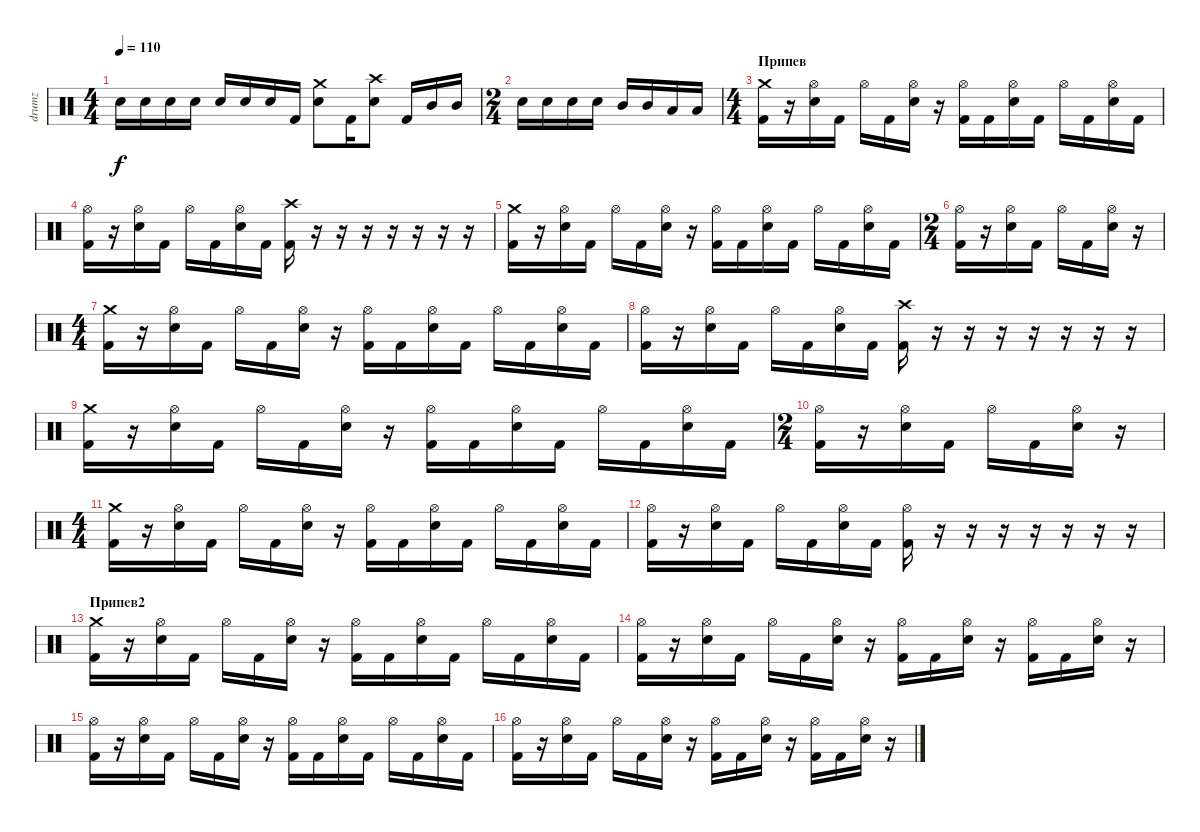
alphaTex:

\track ("drumz" "drumz") {instrument percussion}
\staff {score}
\articulation defaults
\ts (4 4)
\tempo 110
\clef neutral
\ks c "Electric Snare (hit)".16{dy f} "Electric Snare (hit)".16 "Electric Snare (hit)".16 "Electric Snare (hit)".16 "Electric Snare (hit)".16 "Electric Snare (hit)".16 "Electric Snare (hit)".16 "Kick (hit) 2".16
("Crash medium (hit)" "Electric Snare (hit)").8 "Kick (hit) 2".16 ("Crash high (hit)" "Electric Snare (hit)").8 "Kick (hit) 2".16 "Mid Tom (hit)".16 "Mid Tom (hit)".16 |
\ts (2 4)
"Electric Snare (hit)".16 "Electric Snare (hit)".16 "Electric Snare (hit)".16 "Electric Snare (hit)".16 "Mid Tom (hit)".16 "Mid Tom (hit)".16 "Low Tom (hit)".16 "Low Tom (hit)".16 |
\ts (4 4)
\section ("" "Припев")
("Crash medium (hit)" "Kick (hit) 2").16 r.16 ("Hi-Hat (open)" "Electric Snare (hit)").16 "Kick (hit) 2".16 "Hi-Hat (open)".16 "Kick (hit) 2".16 ("Hi-Hat (open)" "Electric Snare (hit)").16 r.16 ("Hi-Hat (open)" "Kick (hit) 2").16 "Kick (hit) 2".16 ("Hi-Hat (open)" "Electric Snare (hit)").16 "Kick (hit) 2".16 "Hi-Hat (open)".16 "Kick (hit) 2".16 ("Hi-Hat (open)" "Electric Snare (hit)").16 "Kick (hit) 2".16 |
("Hi-Hat (open)" "Kick (hit) 2").16 r.16 ("Hi-Hat (open)" "Electric Snare (hit)").16 "Kick (hit) 2".16 "Hi-Hat (open)".16 "Kick (hit) 2".16 ("Hi-Hat (open)" "Electric Snare (hit)").16 "Kick (hit) 2".16 ("Crash high (hit)" "Kick (hit) 2").16 r.16 r.16 r.16 r.16 r.16 r.16 r.16 |
("Crash medium (hit)" "Kick (hit) 2").16 r.16 ("Hi-Hat (open)" "Electric Snare (hit)").16 "Kick (hit) 2".16 "Hi-Hat (open)".16 "Kick (hit) 2".16 ("Hi-Hat (open)" "Electric Snare (hit)").16 r.16 ("Hi-Hat (open)" "Kick (hit) 2").16 "Kick (hit) 2".16 ("Hi-Hat (open)" "Electric Snare (hit)").16 "Kick (hit) 2".16 "Hi-Hat (open)".16 "Kick (hit) 2".16 ("Hi-Hat (open)" "Electric Snare (hit)").16 "Kick (hit) 2".16 |
\ts (2 4)
("Hi-Hat (open)" "Kick (hit) 2").16 r.16 ("Hi-Hat (open)" "Electric Snare (hit)").16 "Kick (hit) 2".16 "Hi-Hat (open)".16 "Kick (hit) 2".16 ("Hi-Hat (open)" "Electric Snare (hit)").16 r.16 |
\ts (4 4)
("Crash medium (hit)" "Kick (hit) 2").16 r.16 ("Hi-Hat (open)" "Electric Snare (hit)").16 "Kick (hit) 2".16 "Hi-Hat (open)".16 "Kick (hit) 2".16 ("Hi-Hat (open)" "Electric Snare (hit)").16 r.16 ("Hi-Hat (open)" "Kick (hit) 2").16 "Kick (hit) 2".16 ("Hi-Hat (open)" "Electric Snare (hit)").16 "Kick (hit) 2".16 "Hi-Hat (open)".16 "Kick (hit) 2".16 ("Hi-Hat (open)" "Electric Snare (hit)").16 "Kick (hit) 2".16 |
("Hi-Hat (open)" "Kick (hit) 2").16 r.16 ("Hi-Hat (open)" "Electric Snare (hit)").16 "Kick (hit) 2".16 "Hi-Hat (open)".16 "Kick (hit) 2".16 ("Hi-Hat (open)" "Electric Snare (hit)").16 "Kick (hit) 2".16 ("Crash high (hit)" "Kick (hit) 2").16 r.16 r.16 r.16 r.16 r.16 r.16 r.16 |
("Crash medium (hit)" "Kick (hit) 2").16 r.16 ("Hi-Hat (open)" "Electric Snare (hit)").16 "Kick (hit) 2".16 "Hi-Hat (open)".16 "Kick (hit) 2".16 ("Hi-Hat (open)" "Electric Snare (hit)").16 r.16 ("Hi-Hat (open)" "Kick (hit) 2").16 "Kick (hit) 2".16 ("Hi-Hat (open)" "Electric Snare (hit)").16 "Kick (hit) 2".16 "Hi-Hat (open)".16 "Kick (hit) 2".16 ("Hi-Hat (open)" "Electric Snare (hit)").16 "Kick (hit) 2".16 |
\ts (2 4)
("Hi-Hat (open)" "Kick (hit) 2").16 r.16 ("Hi-Hat (open)" "Electric Snare (hit)").16 "Kick (hit) 2".16 "Hi-Hat (open)".16 "Kick (hit) 2".16 ("Hi-Hat (open)" "Electric Snare (hit)").16 r.16 |
\ts (4 4)
("Crash medium (hit)" "Kick (hit) 2").16 r.16 ("Hi-Hat (open)" "Electric Snare (hit)").16 "Kick (hit) 2".16 "Hi-Hat (open)".16 "Kick (hit) 2".16 ("Hi-Hat (open)" "Electric Snare (hit)").16 r.16 ("Hi-Hat (open)" "Kick (hit) 2").16 "Kick (hit) 2".16 ("Hi-Hat (open)" "Electric Snare (hit)").16 "Kick (hit) 2".16 "Hi-Hat (open)".16 "Kick (hit) 2".16 ("Hi-Hat (open)" "Electric Snare (hit)").16 "Kick (hit) 2".16 |
("Hi-Hat (open)" "Kick (hit) 2").16 r.16 ("Hi-Hat (open)" "Electric Snare (hit)").16 "Kick (hit) 2".16 "Hi-Hat (open)".16 "Kick (hit) 2".16 ("Hi-Hat (open)" "Electric Snare (hit)").16 "Kick (hit) 2".16 ("Hi-Hat (open)" "Kick (hit) 2").16 r.16 r.16 r.16 r.16 r.16 r.16 r.16 |
\section ("" "Припев2")
("Crash medium (hit)" "Kick (hit) 2").16 r.16 ("Hi-Hat (open)" "Electric Snare (hit)").16 "Kick (hit) 2".16 "Hi-Hat (open)".16 "Kick (hit) 2".16 ("Hi-Hat (open)" "Electric Snare (hit)").16 r.16 ("Hi-Hat (open)" "Kick (hit) 2").16 "Kick (hit) 2".16 ("Hi-Hat (open)" "Electric Snare (hit)").16 "Kick (hit) 2".16 "Hi-Hat (open)".16 "Kick (hit) 2".16 ("Hi-Hat (open)" "Electric Snare (hit)").16 "Kick (hit) 2".16 |
("Hi-Hat (open)" "Kick (hit) 2").16 r.16 ("Hi-Hat (open)" "Electric Snare (hit)").16 "Kick (hit) 2".16 "Hi-Hat (open)".16 "Kick (hit) 2".16 ("Hi-Hat (open)" "Electric Snare (hit)").16 r.16 ("Hi-Hat (open)" "Kick (hit) 2").16 "Kick (hit) 2".16 ("Hi-Hat (open)" "Electric Snare (hit)").16 r.16 ("Hi-Hat (open)" "Kick (hit) 2").16 "Kick (hit) 2".16 ("Hi-Hat (open)" "Electric Snare (hit)").16 r.16 |
("Hi-Hat (open)" "Kick (hit) 2").16 r.16 ("Hi-Hat (open)" "Electric Snare (hit)").16 "Kick (hit) 2".16 "Hi-Hat (open)".16 "Kick (hit) 2".16 ("Hi-Hat (open)" "Electric Snare (hit)").16 r.16 ("Hi-Hat (open)" "Kick (hit) 2").16 "Kick (hit) 2".16 ("Hi-Hat (open)" "Electric Snare (hit)").16 "Kick (hit) 2".16 "Hi-Hat (open)".16 "Kick (hit) 2".16 ("Hi-Hat (open)" "Electric Snare (hit)").16 "Kick (hit) 2".16 |
("Hi-Hat (open)" "Kick (hit) 2").16 r.16 ("Hi-Hat (open)" "Electric Snare (hit)").16 "Kick (hit) 2".16 "Hi-Hat (open)".16 "Kick (hit) 2".16 ("Hi-Hat (open)" "Electric Snare (hit)").16 r.16 ("Hi-Hat (open)" "Kick (hit) 2").16 "Kick (hit) 2".16 ("Hi-Hat (open)" "Electric Snare (hit)").16 r.16 ("Hi-Hat (open)" "Kick (hit) 2").16 "Kick (hit) 2".16 ("Hi-Hat (open)" "Electric Snare (hit)").16 r.16
